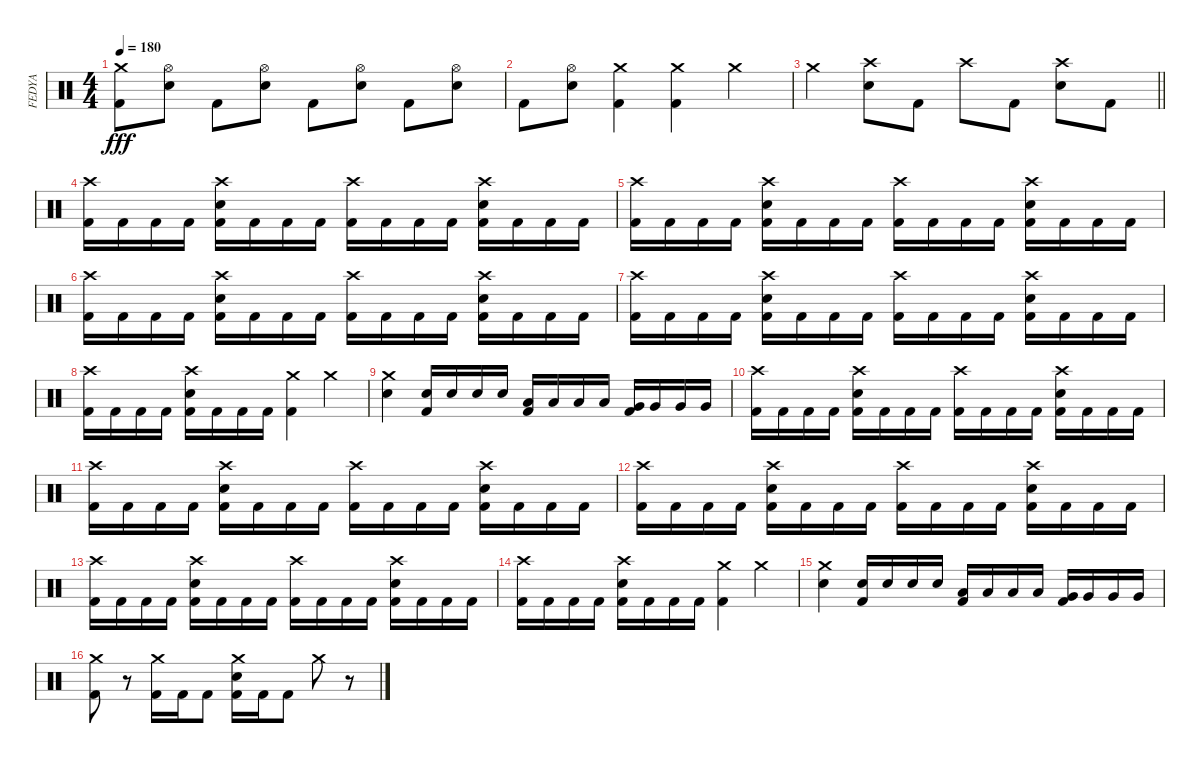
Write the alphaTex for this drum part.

\track ("FEDYA" "FEDYA") {instrument percussion}
\staff {score}
\articulation defaults
\ts (4 4)
\tempo 180
\clef neutral
\ks c
("Crash medium (hit)" "Kick (hit) 2").8{dy fff} ("Hi-Hat (open)" "Snare (hit) 2").8 "Kick (hit) 2".8 ("Hi-Hat (open)" "Snare (hit) 2").8 "Kick (hit) 2".8 ("Hi-Hat (open)" "Snare (hit) 2").8 "Kick (hit) 2".8 ("Hi-Hat (open)" "Snare (hit) 2").8 |
"Kick (hit) 2".8 ("Hi-Hat (open)" "Snare (hit) 2").8 ("Crash medium (hit)" "Kick (hit) 2").4 ("Crash medium (hit)" "Kick (hit) 2").4 "Crash medium (hit)".4 |
\barLineRight lightlight "Crash medium (hit)".4
("Crash high (hit)" "Snare (hit) 2").8 "Kick (hit) 2".8 "Crash high (hit)".8 "Kick (hit) 2".8 ("Crash high (hit)" "Snare (hit) 2").8 "Kick (hit) 2".8 |
("Crash high (hit)" "Kick (hit) 2").16 "Kick (hit) 2".16 "Kick (hit) 2".16 "Kick (hit) 2".16 ("Crash high (hit)" "Snare (hit) 2" "Kick (hit) 2").16 "Kick (hit) 2".16 "Kick (hit) 2".16 "Kick (hit) 2".16 ("Crash high (hit)" "Kick (hit) 2").16 "Kick (hit) 2".16 "Kick (hit) 2".16 "Kick (hit) 2".16 ("Crash high (hit)" "Snare (hit) 2" "Kick (hit) 2").16 "Kick (hit) 2".16 "Kick (hit) 2".16 "Kick (hit) 2".16 |
("Crash high (hit)" "Kick (hit) 2").16 "Kick (hit) 2".16 "Kick (hit) 2".16 "Kick (hit) 2".16 ("Crash high (hit)" "Snare (hit) 2" "Kick (hit) 2").16 "Kick (hit) 2".16 "Kick (hit) 2".16 "Kick (hit) 2".16 ("Crash high (hit)" "Kick (hit) 2").16 "Kick (hit) 2".16 "Kick (hit) 2".16 "Kick (hit) 2".16 ("Crash high (hit)" "Snare (hit) 2" "Kick (hit) 2").16 "Kick (hit) 2".16 "Kick (hit) 2".16 "Kick (hit) 2".16 |
("Crash high (hit)" "Kick (hit) 2").16 "Kick (hit) 2".16 "Kick (hit) 2".16 "Kick (hit) 2".16 ("Crash high (hit)" "Snare (hit) 2" "Kick (hit) 2").16 "Kick (hit) 2".16 "Kick (hit) 2".16 "Kick (hit) 2".16 ("Crash high (hit)" "Kick (hit) 2").16 "Kick (hit) 2".16 "Kick (hit) 2".16 "Kick (hit) 2".16 ("Crash high (hit)" "Snare (hit) 2" "Kick (hit) 2").16 "Kick (hit) 2".16 "Kick (hit) 2".16 "Kick (hit) 2".16 |
("Crash high (hit)" "Kick (hit) 2").16 "Kick (hit) 2".16 "Kick (hit) 2".16 "Kick (hit) 2".16 ("Crash high (hit)" "Snare (hit) 2" "Kick (hit) 2").16 "Kick (hit) 2".16 "Kick (hit) 2".16 "Kick (hit) 2".16 ("Crash high (hit)" "Kick (hit) 2").16 "Kick (hit) 2".16 "Kick (hit) 2".16 "Kick (hit) 2".16 ("Crash high (hit)" "Snare (hit) 2" "Kick (hit) 2").16 "Kick (hit) 2".16 "Kick (hit) 2".16 "Kick (hit) 2".16 |
("Crash high (hit)" "Kick (hit) 2").16 "Kick (hit) 2".16 "Kick (hit) 2".16 "Kick (hit) 2".16 ("Crash high (hit)" "Snare (hit) 2" "Kick (hit) 2").16 "Kick (hit) 2".16 "Kick (hit) 2".16 "Kick (hit) 2".16 ("Crash medium (hit)" "Kick (hit) 2").4 "Crash medium (hit)".4 |
("Crash medium (hit)" "Snare (hit) 2").4 ("Snare (hit) 2" "Kick (hit) 2").16 "Snare (hit) 2".16 "Snare (hit) 2".16 "Snare (hit) 2".16 ("Low Tom (hit)" "Kick (hit) 2").16 "Low Tom (hit)".16 "Low Tom (hit)".16 "Low Tom (hit)".16 ("Very Low Tom (hit)" "Kick (hit) 2").16 "Very Low Tom (hit)".16 "Very Low Tom (hit)".16 "Very Low Tom (hit)".16 |
("Crash high (hit)" "Kick (hit) 2").16 "Kick (hit) 2".16 "Kick (hit) 2".16 "Kick (hit) 2".16 ("Crash high (hit)" "Snare (hit) 2" "Kick (hit) 2").16 "Kick (hit) 2".16 "Kick (hit) 2".16 "Kick (hit) 2".16 ("Crash high (hit)" "Kick (hit) 2").16 "Kick (hit) 2".16 "Kick (hit) 2".16 "Kick (hit) 2".16 ("Crash high (hit)" "Snare (hit) 2" "Kick (hit) 2").16 "Kick (hit) 2".16 "Kick (hit) 2".16 "Kick (hit) 2".16 |
("Crash high (hit)" "Kick (hit) 2").16 "Kick (hit) 2".16 "Kick (hit) 2".16 "Kick (hit) 2".16 ("Crash high (hit)" "Snare (hit) 2" "Kick (hit) 2").16 "Kick (hit) 2".16 "Kick (hit) 2".16 "Kick (hit) 2".16 ("Crash high (hit)" "Kick (hit) 2").16 "Kick (hit) 2".16 "Kick (hit) 2".16 "Kick (hit) 2".16 ("Crash high (hit)" "Snare (hit) 2" "Kick (hit) 2").16 "Kick (hit) 2".16 "Kick (hit) 2".16 "Kick (hit) 2".16 |
("Crash high (hit)" "Kick (hit) 2").16 "Kick (hit) 2".16 "Kick (hit) 2".16 "Kick (hit) 2".16 ("Crash high (hit)" "Snare (hit) 2" "Kick (hit) 2").16 "Kick (hit) 2".16 "Kick (hit) 2".16 "Kick (hit) 2".16 ("Crash high (hit)" "Kick (hit) 2").16 "Kick (hit) 2".16 "Kick (hit) 2".16 "Kick (hit) 2".16 ("Crash high (hit)" "Snare (hit) 2" "Kick (hit) 2").16 "Kick (hit) 2".16 "Kick (hit) 2".16 "Kick (hit) 2".16 |
("Crash high (hit)" "Kick (hit) 2").16 "Kick (hit) 2".16 "Kick (hit) 2".16 "Kick (hit) 2".16 ("Crash high (hit)" "Snare (hit) 2" "Kick (hit) 2").16 "Kick (hit) 2".16 "Kick (hit) 2".16 "Kick (hit) 2".16 ("Crash high (hit)" "Kick (hit) 2").16 "Kick (hit) 2".16 "Kick (hit) 2".16 "Kick (hit) 2".16 ("Crash high (hit)" "Snare (hit) 2" "Kick (hit) 2").16 "Kick (hit) 2".16 "Kick (hit) 2".16 "Kick (hit) 2".16 |
("Crash high (hit)" "Kick (hit) 2").16 "Kick (hit) 2".16 "Kick (hit) 2".16 "Kick (hit) 2".16 ("Crash high (hit)" "Snare (hit) 2" "Kick (hit) 2").16 "Kick (hit) 2".16 "Kick (hit) 2".16 "Kick (hit) 2".16 ("Crash medium (hit)" "Kick (hit) 2").4 "Crash medium (hit)".4 |
("Crash medium (hit)" "Snare (hit) 2").4 ("Snare (hit) 2" "Kick (hit) 2").16 "Snare (hit) 2".16 "Snare (hit) 2".16 "Snare (hit) 2".16 ("Low Tom (hit)" "Kick (hit) 2").16 "Low Tom (hit)".16 "Low Tom (hit)".16 "Low Tom (hit)".16 ("Very Low Tom (hit)" "Kick (hit) 2").16 "Very Low Tom (hit)".16 "Very Low Tom (hit)".16 "Very Low Tom (hit)".16 |
("Crash medium (hit)" "Kick (hit) 2").8 r.8 ("Crash medium (hit)" "Kick (hit) 2").16 "Kick (hit) 2".16 "Kick (hit) 2".8 ("Crash medium (hit)" "Snare (hit) 2" "Kick (hit) 2").16 "Kick (hit) 2".16 "Kick (hit) 2".8 "Crash medium (hit)".8 r.8
